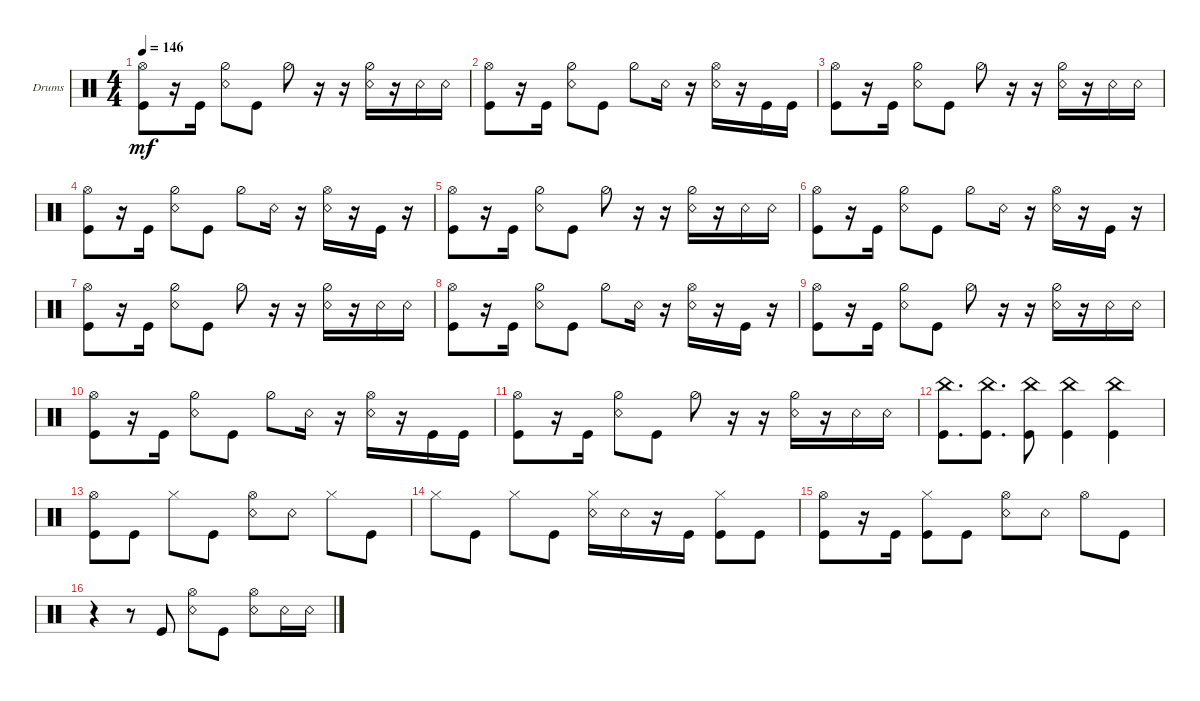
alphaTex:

\defaultSystemsLayout 4
\bracketExtendMode groupsimilarinstruments
\firstSystemTrackNameOrientation horizontal
\otherSystemsTrackNameOrientation horizontal
\track ("Drums" "Drums") {instrument percussion}
\staff {score}
\articulation defaults
\ts (4 4)
\tempo 146
\clef neutral
\ks c
("Hi-Hat (open)" "Kick (hit)").8{dy mf} r.16 "Kick (hit)".16 ("Snare (rim shot)" "Hi-Hat (half)").8 "Kick (hit)".8 "Hi-Hat (half)".8 r.16 r.16 ("Hi-Hat (half)" "Snare (rim shot)").16 r.16 "Snare (rim shot)".16 "Snare (rim shot)".16 |
("Hi-Hat (open)" "Kick (hit)").8 r.16 "Kick (hit)".16 ("Snare (rim shot)" "Hi-Hat (half)").8 "Kick (hit)".8 "Hi-Hat (half)".8 "Snare (rim shot)".16 r.16 ("Snare (rim shot)" "Hi-Hat (open)").16 r.16 "Kick (hit)".16 "Kick (hit)".16 |
("Hi-Hat (open)" "Kick (hit)").8 r.16 "Kick (hit)".16 ("Snare (rim shot)" "Hi-Hat (half)").8 "Kick (hit)".8 "Hi-Hat (half)".8 r.16 r.16 ("Hi-Hat (half)" "Snare (rim shot)").16 r.16 "Snare (rim shot)".16 "Snare (rim shot)".16 |
("Hi-Hat (open)" "Kick (hit)").8 r.16 "Kick (hit)".16 ("Snare (rim shot)" "Hi-Hat (half)").8 "Kick (hit)".8 "Hi-Hat (half)".8 "Snare (rim shot)".16 r.16 ("Snare (rim shot)" "Hi-Hat (open)").16 r.16 "Kick (hit)".16 r.16 |
("Hi-Hat (open)" "Kick (hit)").8 r.16 "Kick (hit)".16 ("Snare (rim shot)" "Hi-Hat (half)").8 "Kick (hit)".8 "Hi-Hat (half)".8 r.16 r.16 ("Hi-Hat (half)" "Snare (rim shot)").16 r.16 "Snare (rim shot)".16 "Snare (rim shot)".16 |
("Hi-Hat (open)" "Kick (hit)").8 r.16 "Kick (hit)".16 ("Snare (rim shot)" "Hi-Hat (half)").8 "Kick (hit)".8 "Hi-Hat (half)".8 "Snare (rim shot)".16 r.16 ("Snare (rim shot)" "Hi-Hat (open)").16 r.16 "Kick (hit)".16 r.16 |
("Hi-Hat (open)" "Kick (hit)").8 r.16 "Kick (hit)".16 ("Snare (rim shot)" "Hi-Hat (half)").8 "Kick (hit)".8 "Hi-Hat (half)".8 r.16 r.16 ("Hi-Hat (half)" "Snare (rim shot)").16 r.16 "Snare (rim shot)".16 "Snare (rim shot)".16 |
("Hi-Hat (open)" "Kick (hit)").8 r.16 "Kick (hit)".16 ("Snare (rim shot)" "Hi-Hat (half)").8 "Kick (hit)".8 "Hi-Hat (half)".8 "Snare (rim shot)".16 r.16 ("Snare (rim shot)" "Hi-Hat (open)").16 r.16 "Kick (hit)".16 r.16 |
("Hi-Hat (open)" "Kick (hit)").8 r.16 "Kick (hit)".16 ("Snare (rim shot)" "Hi-Hat (half)").8 "Kick (hit)".8 "Hi-Hat (half)".8 r.16 r.16 ("Hi-Hat (half)" "Snare (rim shot)").16 r.16 "Snare (rim shot)".16 "Snare (rim shot)".16 |
("Hi-Hat (open)" "Kick (hit)").8 r.16 "Kick (hit)".16 ("Snare (rim shot)" "Hi-Hat (half)").8 "Kick (hit)".8 "Hi-Hat (half)".8 "Snare (rim shot)".16 r.16 ("Snare (rim shot)" "Hi-Hat (open)").16 r.16 "Kick (hit)".16 "Kick (hit)".16 |
("Hi-Hat (open)" "Kick (hit)").8 r.16 "Kick (hit)".16 ("Snare (rim shot)" "Hi-Hat (half)").8 "Kick (hit)".8 "Hi-Hat (half)".8 r.16 r.16 ("Hi-Hat (half)" "Snare (rim shot)").16 r.16 "Snare (rim shot)".16 "Snare (rim shot)".16 |
("China (hit)" "Kick (hit)").8{d} ("China (hit)" "Kick (hit)").8{d} ("Kick (hit)" "China (hit)").8 ("China (hit)" "Kick (hit)").4 ("China (hit)" "Kick (hit)").4 |
("Hi-Hat (open)" "Kick (hit)").8 "Kick (hit)".8 "Hi-Hat (closed)".8 "Kick (hit)".8 ("Hi-Hat (open)" "Snare (rim shot)").8 "Snare (rim shot)".8 "Hi-Hat (closed)".8 "Kick (hit)".8 |
"Hi-Hat (closed)".8 "Kick (hit)".8 "Hi-Hat (closed)".8 "Kick (hit)".8 ("Snare (rim shot)" "Hi-Hat (closed)").16 "Snare (rim shot)".16 r.16 "Kick (hit)".16 ("Hi-Hat (closed)" "Kick (hit)").8 "Kick (hit)".8 |
("Hi-Hat (open)" "Kick (hit)").8 r.16 "Kick (hit)".16 ("Kick (hit)" "Hi-Hat (closed)").8 "Kick (hit)".8 ("Snare (rim shot)" "Hi-Hat (open)").8 "Snare (rim shot)".8 "Hi-Hat (open)".8 "Kick (hit)".8 |
r.4 r.8 "Kick (hit)".8 ("Snare (rim shot)" "Hi-Hat (open)").8 "Kick (hit)".8 ("Snare (rim shot)" "Hi-Hat (open)").8 "Snare (rim shot)".16 "Snare (rim shot)".16
